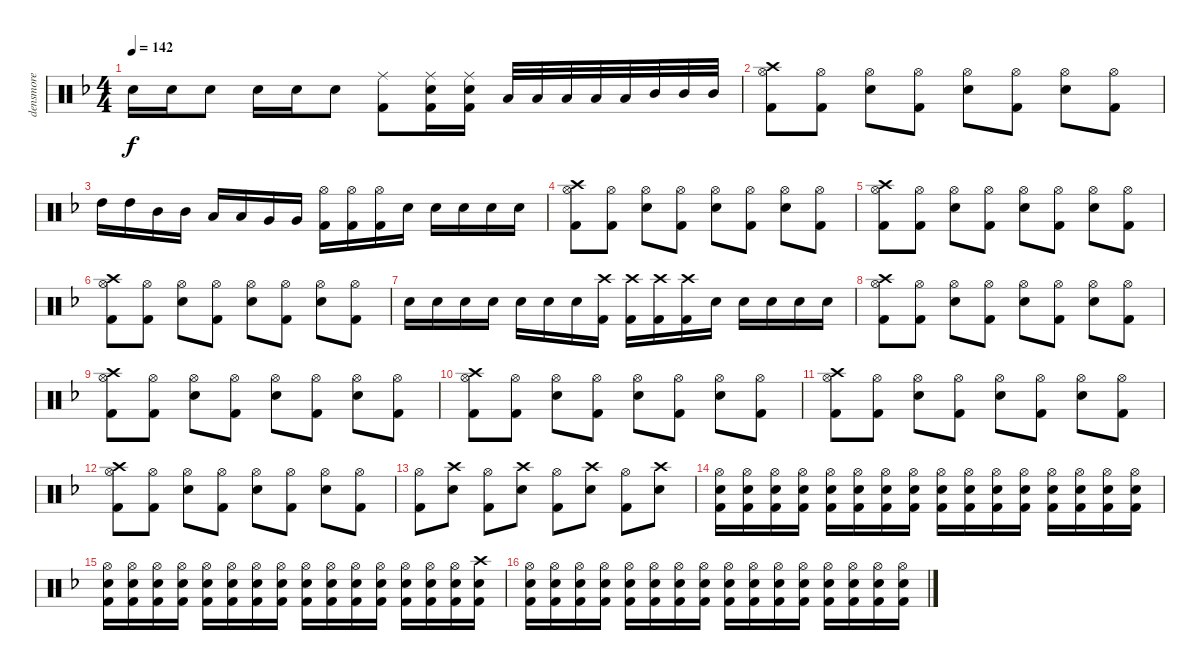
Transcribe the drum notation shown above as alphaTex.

\track ("densmore" "densmore") {instrument percussion}
\staff {score}
\articulation defaults
\ts (4 4)
\tempo 142
\clef neutral
\ks f "Electric Snare (hit)".16{dy f} "Electric Snare (hit)".16 "Electric Snare (hit)".8 "Electric Snare (hit)".16 "Electric Snare (hit)".16 "Electric Snare (hit)".8
("Ride (middle)" "Kick (hit) 2").8 ("Ride (middle)" "Kick (hit) 2" "Electric Snare (hit)").16 ("Ride (middle)" "Kick (hit) 2" "Electric Snare (hit)").16 "Low Tom (hit)".32 "Low Tom (hit)".32 "Low Tom (hit)".32 "Low Tom (hit)".32 "Low Tom (hit)".32 "Mid Tom (hit)".32 "Mid Tom (hit)".32 "Mid Tom (hit)".32 |
("Hi-Hat (open)" "Kick (hit) 2" "Crash high (hit)").8 ("Hi-Hat (open)" "Kick (hit) 2").8 ("Hi-Hat (open)" "Electric Snare (hit)").8 ("Hi-Hat (open)" "Kick (hit) 2").8 ("Hi-Hat (open)" "Electric Snare (hit)").8 ("Hi-Hat (open)" "Kick (hit) 2").8 ("Hi-Hat (open)" "Electric Snare (hit)").8 ("Hi-Hat (open)" "Kick (hit) 2").8 |
"High Tom (hit)".16 "High Tom (hit)".16 "Mid Tom (hit)".16 "Mid Tom (hit)".16 "Low Tom (hit)".16 "Low Tom (hit)".16 "Very Low Tom (hit)".16 "Very Low Tom (hit)".16 ("Hi-Hat (open)" "Kick (hit) 2").16 ("Hi-Hat (open)" "Kick (hit) 2").16 ("Hi-Hat (open)" "Kick (hit) 2").16 "Electric Snare (hit)".16 "Electric Snare (hit)".16 "Electric Snare (hit)".16 "Electric Snare (hit)".16 "Electric Snare (hit)".16 |
("Hi-Hat (open)" "Kick (hit) 2" "Crash high (hit)").8 ("Hi-Hat (open)" "Kick (hit) 2").8 ("Hi-Hat (open)" "Electric Snare (hit)").8 ("Hi-Hat (open)" "Kick (hit) 2").8 ("Hi-Hat (open)" "Electric Snare (hit)").8 ("Hi-Hat (open)" "Kick (hit) 2").8 ("Hi-Hat (open)" "Electric Snare (hit)").8 ("Hi-Hat (open)" "Kick (hit) 2").8 |
("Hi-Hat (open)" "Kick (hit) 2" "Crash high (hit)").8 ("Hi-Hat (open)" "Kick (hit) 2").8 ("Hi-Hat (open)" "Electric Snare (hit)").8 ("Hi-Hat (open)" "Kick (hit) 2").8 ("Hi-Hat (open)" "Electric Snare (hit)").8 ("Hi-Hat (open)" "Kick (hit) 2").8 ("Hi-Hat (open)" "Electric Snare (hit)").8 ("Hi-Hat (open)" "Kick (hit) 2").8 |
("Hi-Hat (open)" "Kick (hit) 2" "Crash high (hit)").8 ("Hi-Hat (open)" "Kick (hit) 2").8 ("Hi-Hat (open)" "Electric Snare (hit)").8 ("Hi-Hat (open)" "Kick (hit) 2").8 ("Hi-Hat (open)" "Electric Snare (hit)").8 ("Hi-Hat (open)" "Kick (hit) 2").8 ("Hi-Hat (open)" "Electric Snare (hit)").8 ("Hi-Hat (open)" "Kick (hit) 2").8 |
"Electric Snare (hit)".16 "Electric Snare (hit)".16 "Electric Snare (hit)".16 "Electric Snare (hit)".16 "Electric Snare (hit)".16 "Electric Snare (hit)".16 "Electric Snare (hit)".16 ("Kick (hit) 2" "Crash high (hit)").16 ("Kick (hit) 2" "Crash high (hit)").16 ("Kick (hit) 2" "Crash high (hit)").16 ("Kick (hit) 2" "Crash high (hit)").16 "Electric Snare (hit)".16 "Electric Snare (hit)".16 "Electric Snare (hit)".16 "Electric Snare (hit)".16 "Electric Snare (hit)".16 |
("Hi-Hat (open)" "Kick (hit) 2" "Crash high (hit)").8 ("Hi-Hat (open)" "Kick (hit) 2").8 ("Hi-Hat (open)" "Electric Snare (hit)").8 ("Hi-Hat (open)" "Kick (hit) 2").8 ("Hi-Hat (open)" "Electric Snare (hit)").8 ("Hi-Hat (open)" "Kick (hit) 2").8 ("Hi-Hat (open)" "Electric Snare (hit)").8 ("Hi-Hat (open)" "Kick (hit) 2").8 |
("Hi-Hat (open)" "Kick (hit) 2" "Crash high (hit)").8 ("Hi-Hat (open)" "Kick (hit) 2").8 ("Hi-Hat (open)" "Electric Snare (hit)").8 ("Hi-Hat (open)" "Kick (hit) 2").8 ("Hi-Hat (open)" "Electric Snare (hit)").8 ("Hi-Hat (open)" "Kick (hit) 2").8 ("Hi-Hat (open)" "Electric Snare (hit)").8 ("Hi-Hat (open)" "Kick (hit) 2").8 |
("Hi-Hat (open)" "Kick (hit) 2" "Crash high (hit)").8 ("Hi-Hat (open)" "Kick (hit) 2").8 ("Hi-Hat (open)" "Electric Snare (hit)").8 ("Hi-Hat (open)" "Kick (hit) 2").8 ("Hi-Hat (open)" "Electric Snare (hit)").8 ("Hi-Hat (open)" "Kick (hit) 2").8 ("Hi-Hat (open)" "Electric Snare (hit)").8 ("Hi-Hat (open)" "Kick (hit) 2").8 |
("Hi-Hat (open)" "Kick (hit) 2" "Crash high (hit)").8 ("Hi-Hat (open)" "Kick (hit) 2").8 ("Hi-Hat (open)" "Electric Snare (hit)").8 ("Hi-Hat (open)" "Kick (hit) 2").8 ("Hi-Hat (open)" "Electric Snare (hit)").8 ("Hi-Hat (open)" "Kick (hit) 2").8 ("Hi-Hat (open)" "Electric Snare (hit)").8 ("Hi-Hat (open)" "Kick (hit) 2").8 |
("Hi-Hat (open)" "Kick (hit) 2" "Crash high (hit)").8 ("Hi-Hat (open)" "Kick (hit) 2").8 ("Hi-Hat (open)" "Electric Snare (hit)").8 ("Hi-Hat (open)" "Kick (hit) 2").8 ("Hi-Hat (open)" "Electric Snare (hit)").8 ("Hi-Hat (open)" "Kick (hit) 2").8 ("Hi-Hat (open)" "Electric Snare (hit)").8 ("Hi-Hat (open)" "Kick (hit) 2").8 |
("Kick (hit) 2" "Hi-Hat (open)").8 ("Electric Snare (hit)" "Crash high (hit)").8 ("Kick (hit) 2" "Hi-Hat (open)").8 ("Electric Snare (hit)" "Crash high (hit)").8 ("Kick (hit) 2" "Hi-Hat (open)").8 ("Electric Snare (hit)" "Crash high (hit)").8 ("Kick (hit) 2" "Hi-Hat (open)").8 ("Electric Snare (hit)" "Crash high (hit)").8 |
("Electric Snare (hit)" "Hi-Hat (open)" "Kick (hit) 2").16 ("Electric Snare (hit)" "Hi-Hat (open)" "Kick (hit) 2").16 ("Electric Snare (hit)" "Hi-Hat (open)" "Kick (hit) 2").16 ("Electric Snare (hit)" "Hi-Hat (open)" "Kick (hit) 2").16 ("Electric Snare (hit)" "Hi-Hat (open)" "Kick (hit) 2").16 ("Electric Snare (hit)" "Hi-Hat (open)" "Kick (hit) 2").16 ("Electric Snare (hit)" "Hi-Hat (open)" "Kick (hit) 2").16 ("Electric Snare (hit)" "Hi-Hat (open)" "Kick (hit) 2").16 ("Electric Snare (hit)" "Hi-Hat (open)" "Kick (hit) 2").16 ("Electric Snare (hit)" "Hi-Hat (open)" "Kick (hit) 2").16 ("Electric Snare (hit)" "Hi-Hat (open)" "Kick (hit) 2").16 ("Electric Snare (hit)" "Hi-Hat (open)" "Kick (hit) 2").16 ("Electric Snare (hit)" "Hi-Hat (open)" "Kick (hit) 2").16 ("Electric Snare (hit)" "Hi-Hat (open)" "Kick (hit) 2").16 ("Electric Snare (hit)" "Hi-Hat (open)" "Kick (hit) 2").16 ("Electric Snare (hit)" "Hi-Hat (open)" "Kick (hit) 2").16 |
("Electric Snare (hit)" "Hi-Hat (open)" "Kick (hit) 2").16 ("Electric Snare (hit)" "Hi-Hat (open)" "Kick (hit) 2").16 ("Electric Snare (hit)" "Hi-Hat (open)" "Kick (hit) 2").16 ("Electric Snare (hit)" "Hi-Hat (open)" "Kick (hit) 2").16 ("Electric Snare (hit)" "Hi-Hat (open)" "Kick (hit) 2").16 ("Electric Snare (hit)" "Hi-Hat (open)" "Kick (hit) 2").16 ("Electric Snare (hit)" "Hi-Hat (open)" "Kick (hit) 2").16 ("Electric Snare (hit)" "Hi-Hat (open)" "Kick (hit) 2").16 ("Electric Snare (hit)" "Hi-Hat (open)" "Kick (hit) 2").16 ("Electric Snare (hit)" "Hi-Hat (open)" "Kick (hit) 2").16 ("Electric Snare (hit)" "Hi-Hat (open)" "Kick (hit) 2").16 ("Electric Snare (hit)" "Hi-Hat (open)" "Kick (hit) 2").16 ("Electric Snare (hit)" "Hi-Hat (open)" "Kick (hit) 2").16 ("Electric Snare (hit)" "Hi-Hat (open)" "Kick (hit) 2").16 ("Electric Snare (hit)" "Hi-Hat (open)" "Kick (hit) 2").16 ("Electric Snare (hit)" "Crash high (hit)" "Kick (hit) 2").16 |
("Electric Snare (hit)" "Hi-Hat (open)" "Kick (hit) 2").16 ("Electric Snare (hit)" "Hi-Hat (open)" "Kick (hit) 2").16 ("Electric Snare (hit)" "Hi-Hat (open)" "Kick (hit) 2").16 ("Electric Snare (hit)" "Hi-Hat (open)" "Kick (hit) 2").16 ("Electric Snare (hit)" "Hi-Hat (open)" "Kick (hit) 2").16 ("Electric Snare (hit)" "Hi-Hat (open)" "Kick (hit) 2").16 ("Electric Snare (hit)" "Hi-Hat (open)" "Kick (hit) 2").16 ("Electric Snare (hit)" "Hi-Hat (open)" "Kick (hit) 2").16 ("Electric Snare (hit)" "Hi-Hat (open)" "Kick (hit) 2").16 ("Electric Snare (hit)" "Hi-Hat (open)" "Kick (hit) 2").16 ("Electric Snare (hit)" "Hi-Hat (open)" "Kick (hit) 2").16 ("Electric Snare (hit)" "Hi-Hat (open)" "Kick (hit) 2").16 ("Electric Snare (hit)" "Hi-Hat (open)" "Kick (hit) 2").16 ("Electric Snare (hit)" "Hi-Hat (open)" "Kick (hit) 2").16 ("Electric Snare (hit)" "Hi-Hat (open)" "Kick (hit) 2").16 ("Electric Snare (hit)" "Hi-Hat (open)" "Kick (hit) 2").16
